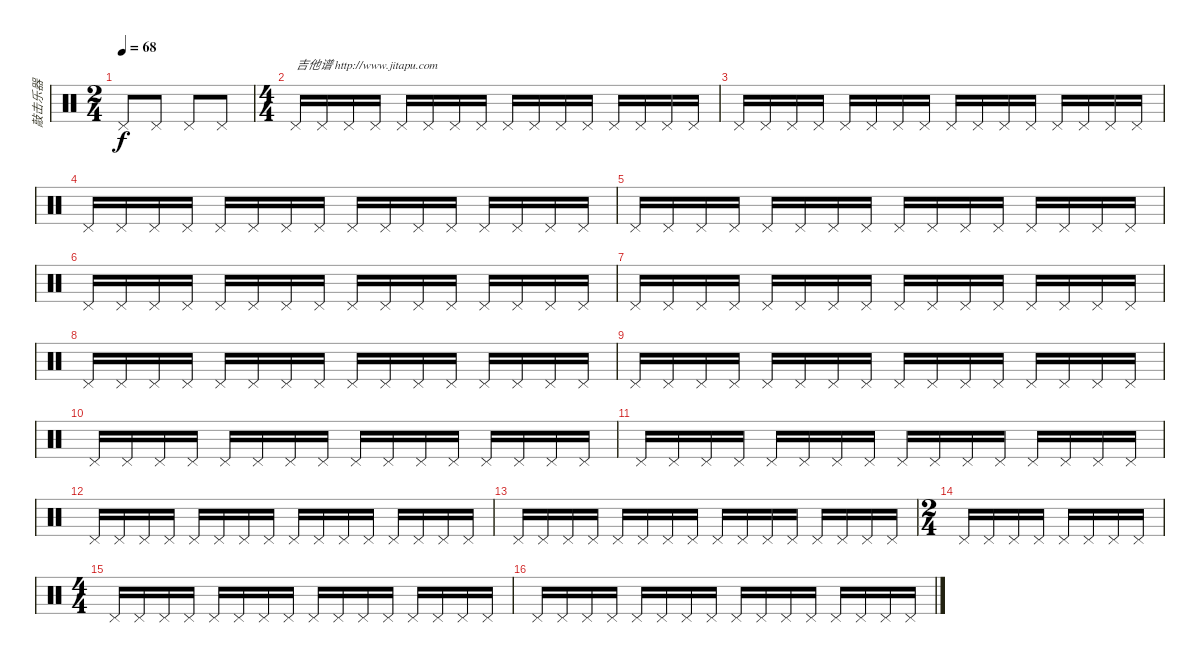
\track ("敲击乐器" "敲击乐器") {instrument percussion}
\staff {score}
\articulation defaults
\ts (2 4)
\tempo 68
\clef neutral
\ks c "Pedal Hi-Hat (hit)".8{dy f} "Pedal Hi-Hat (hit)".8 "Pedal Hi-Hat (hit)".8 "Pedal Hi-Hat (hit)".8
|
\ts (4 4)
"Pedal Hi-Hat (hit)".16{txt "吉他谱 http://www.jitapu.com"} "Pedal Hi-Hat (hit)".16 "Pedal Hi-Hat (hit)".16 "Pedal Hi-Hat (hit)".16 "Pedal Hi-Hat (hit)".16 "Pedal Hi-Hat (hit)".16 "Pedal Hi-Hat (hit)".16 "Pedal Hi-Hat (hit)".16 "Pedal Hi-Hat (hit)".16 "Pedal Hi-Hat (hit)".16 "Pedal Hi-Hat (hit)".16 "Pedal Hi-Hat (hit)".16 "Pedal Hi-Hat (hit)".16 "Pedal Hi-Hat (hit)".16 "Pedal Hi-Hat (hit)".16 "Pedal Hi-Hat (hit)".16 |
"Pedal Hi-Hat (hit)".16 "Pedal Hi-Hat (hit)".16 "Pedal Hi-Hat (hit)".16 "Pedal Hi-Hat (hit)".16 "Pedal Hi-Hat (hit)".16 "Pedal Hi-Hat (hit)".16 "Pedal Hi-Hat (hit)".16 "Pedal Hi-Hat (hit)".16 "Pedal Hi-Hat (hit)".16 "Pedal Hi-Hat (hit)".16 "Pedal Hi-Hat (hit)".16 "Pedal Hi-Hat (hit)".16 "Pedal Hi-Hat (hit)".16 "Pedal Hi-Hat (hit)".16 "Pedal Hi-Hat (hit)".16 "Pedal Hi-Hat (hit)".16 |
"Pedal Hi-Hat (hit)".16 "Pedal Hi-Hat (hit)".16 "Pedal Hi-Hat (hit)".16 "Pedal Hi-Hat (hit)".16 "Pedal Hi-Hat (hit)".16 "Pedal Hi-Hat (hit)".16 "Pedal Hi-Hat (hit)".16 "Pedal Hi-Hat (hit)".16 "Pedal Hi-Hat (hit)".16 "Pedal Hi-Hat (hit)".16 "Pedal Hi-Hat (hit)".16 "Pedal Hi-Hat (hit)".16 "Pedal Hi-Hat (hit)".16 "Pedal Hi-Hat (hit)".16 "Pedal Hi-Hat (hit)".16 "Pedal Hi-Hat (hit)".16 |
"Pedal Hi-Hat (hit)".16 "Pedal Hi-Hat (hit)".16 "Pedal Hi-Hat (hit)".16 "Pedal Hi-Hat (hit)".16 "Pedal Hi-Hat (hit)".16 "Pedal Hi-Hat (hit)".16 "Pedal Hi-Hat (hit)".16 "Pedal Hi-Hat (hit)".16 "Pedal Hi-Hat (hit)".16 "Pedal Hi-Hat (hit)".16 "Pedal Hi-Hat (hit)".16 "Pedal Hi-Hat (hit)".16 "Pedal Hi-Hat (hit)".16 "Pedal Hi-Hat (hit)".16 "Pedal Hi-Hat (hit)".16 "Pedal Hi-Hat (hit)".16 |
"Pedal Hi-Hat (hit)".16 "Pedal Hi-Hat (hit)".16 "Pedal Hi-Hat (hit)".16 "Pedal Hi-Hat (hit)".16 "Pedal Hi-Hat (hit)".16 "Pedal Hi-Hat (hit)".16 "Pedal Hi-Hat (hit)".16 "Pedal Hi-Hat (hit)".16 "Pedal Hi-Hat (hit)".16 "Pedal Hi-Hat (hit)".16 "Pedal Hi-Hat (hit)".16 "Pedal Hi-Hat (hit)".16 "Pedal Hi-Hat (hit)".16 "Pedal Hi-Hat (hit)".16 "Pedal Hi-Hat (hit)".16 "Pedal Hi-Hat (hit)".16 |
"Pedal Hi-Hat (hit)".16 "Pedal Hi-Hat (hit)".16 "Pedal Hi-Hat (hit)".16 "Pedal Hi-Hat (hit)".16 "Pedal Hi-Hat (hit)".16 "Pedal Hi-Hat (hit)".16 "Pedal Hi-Hat (hit)".16 "Pedal Hi-Hat (hit)".16 "Pedal Hi-Hat (hit)".16 "Pedal Hi-Hat (hit)".16 "Pedal Hi-Hat (hit)".16 "Pedal Hi-Hat (hit)".16 "Pedal Hi-Hat (hit)".16 "Pedal Hi-Hat (hit)".16 "Pedal Hi-Hat (hit)".16 "Pedal Hi-Hat (hit)".16 |
"Pedal Hi-Hat (hit)".16 "Pedal Hi-Hat (hit)".16 "Pedal Hi-Hat (hit)".16 "Pedal Hi-Hat (hit)".16 "Pedal Hi-Hat (hit)".16 "Pedal Hi-Hat (hit)".16 "Pedal Hi-Hat (hit)".16 "Pedal Hi-Hat (hit)".16 "Pedal Hi-Hat (hit)".16 "Pedal Hi-Hat (hit)".16 "Pedal Hi-Hat (hit)".16 "Pedal Hi-Hat (hit)".16 "Pedal Hi-Hat (hit)".16 "Pedal Hi-Hat (hit)".16 "Pedal Hi-Hat (hit)".16 "Pedal Hi-Hat (hit)".16 |
"Pedal Hi-Hat (hit)".16 "Pedal Hi-Hat (hit)".16 "Pedal Hi-Hat (hit)".16 "Pedal Hi-Hat (hit)".16 "Pedal Hi-Hat (hit)".16 "Pedal Hi-Hat (hit)".16 "Pedal Hi-Hat (hit)".16 "Pedal Hi-Hat (hit)".16 "Pedal Hi-Hat (hit)".16 "Pedal Hi-Hat (hit)".16 "Pedal Hi-Hat (hit)".16 "Pedal Hi-Hat (hit)".16 "Pedal Hi-Hat (hit)".16 "Pedal Hi-Hat (hit)".16 "Pedal Hi-Hat (hit)".16 "Pedal Hi-Hat (hit)".16 |
"Pedal Hi-Hat (hit)".16 "Pedal Hi-Hat (hit)".16 "Pedal Hi-Hat (hit)".16 "Pedal Hi-Hat (hit)".16 "Pedal Hi-Hat (hit)".16 "Pedal Hi-Hat (hit)".16 "Pedal Hi-Hat (hit)".16 "Pedal Hi-Hat (hit)".16 "Pedal Hi-Hat (hit)".16 "Pedal Hi-Hat (hit)".16 "Pedal Hi-Hat (hit)".16 "Pedal Hi-Hat (hit)".16 "Pedal Hi-Hat (hit)".16 "Pedal Hi-Hat (hit)".16 "Pedal Hi-Hat (hit)".16 "Pedal Hi-Hat (hit)".16 |
"Pedal Hi-Hat (hit)".16 "Pedal Hi-Hat (hit)".16 "Pedal Hi-Hat (hit)".16 "Pedal Hi-Hat (hit)".16 "Pedal Hi-Hat (hit)".16 "Pedal Hi-Hat (hit)".16 "Pedal Hi-Hat (hit)".16 "Pedal Hi-Hat (hit)".16 "Pedal Hi-Hat (hit)".16 "Pedal Hi-Hat (hit)".16 "Pedal Hi-Hat (hit)".16 "Pedal Hi-Hat (hit)".16 "Pedal Hi-Hat (hit)".16 "Pedal Hi-Hat (hit)".16 "Pedal Hi-Hat (hit)".16 "Pedal Hi-Hat (hit)".16 |
"Pedal Hi-Hat (hit)".16 "Pedal Hi-Hat (hit)".16 "Pedal Hi-Hat (hit)".16 "Pedal Hi-Hat (hit)".16 "Pedal Hi-Hat (hit)".16 "Pedal Hi-Hat (hit)".16 "Pedal Hi-Hat (hit)".16 "Pedal Hi-Hat (hit)".16 "Pedal Hi-Hat (hit)".16 "Pedal Hi-Hat (hit)".16 "Pedal Hi-Hat (hit)".16 "Pedal Hi-Hat (hit)".16 "Pedal Hi-Hat (hit)".16 "Pedal Hi-Hat (hit)".16 "Pedal Hi-Hat (hit)".16 "Pedal Hi-Hat (hit)".16 |
"Pedal Hi-Hat (hit)".16 "Pedal Hi-Hat (hit)".16 "Pedal Hi-Hat (hit)".16 "Pedal Hi-Hat (hit)".16 "Pedal Hi-Hat (hit)".16 "Pedal Hi-Hat (hit)".16 "Pedal Hi-Hat (hit)".16 "Pedal Hi-Hat (hit)".16 "Pedal Hi-Hat (hit)".16 "Pedal Hi-Hat (hit)".16 "Pedal Hi-Hat (hit)".16 "Pedal Hi-Hat (hit)".16 "Pedal Hi-Hat (hit)".16 "Pedal Hi-Hat (hit)".16 "Pedal Hi-Hat (hit)".16 "Pedal Hi-Hat (hit)".16 |
\ts (2 4)
"Pedal Hi-Hat (hit)".16 "Pedal Hi-Hat (hit)".16 "Pedal Hi-Hat (hit)".16 "Pedal Hi-Hat (hit)".16 "Pedal Hi-Hat (hit)".16 "Pedal Hi-Hat (hit)".16 "Pedal Hi-Hat (hit)".16 "Pedal Hi-Hat (hit)".16 |
\ts (4 4)
"Pedal Hi-Hat (hit)".16 "Pedal Hi-Hat (hit)".16 "Pedal Hi-Hat (hit)".16 "Pedal Hi-Hat (hit)".16 "Pedal Hi-Hat (hit)".16 "Pedal Hi-Hat (hit)".16 "Pedal Hi-Hat (hit)".16 "Pedal Hi-Hat (hit)".16 "Pedal Hi-Hat (hit)".16 "Pedal Hi-Hat (hit)".16 "Pedal Hi-Hat (hit)".16 "Pedal Hi-Hat (hit)".16 "Pedal Hi-Hat (hit)".16 "Pedal Hi-Hat (hit)".16 "Pedal Hi-Hat (hit)".16 "Pedal Hi-Hat (hit)".16 |
"Pedal Hi-Hat (hit)".16 "Pedal Hi-Hat (hit)".16 "Pedal Hi-Hat (hit)".16 "Pedal Hi-Hat (hit)".16 "Pedal Hi-Hat (hit)".16 "Pedal Hi-Hat (hit)".16 "Pedal Hi-Hat (hit)".16 "Pedal Hi-Hat (hit)".16 "Pedal Hi-Hat (hit)".16 "Pedal Hi-Hat (hit)".16 "Pedal Hi-Hat (hit)".16 "Pedal Hi-Hat (hit)".16 "Pedal Hi-Hat (hit)".16 "Pedal Hi-Hat (hit)".16 "Pedal Hi-Hat (hit)".16 "Pedal Hi-Hat (hit)".16
